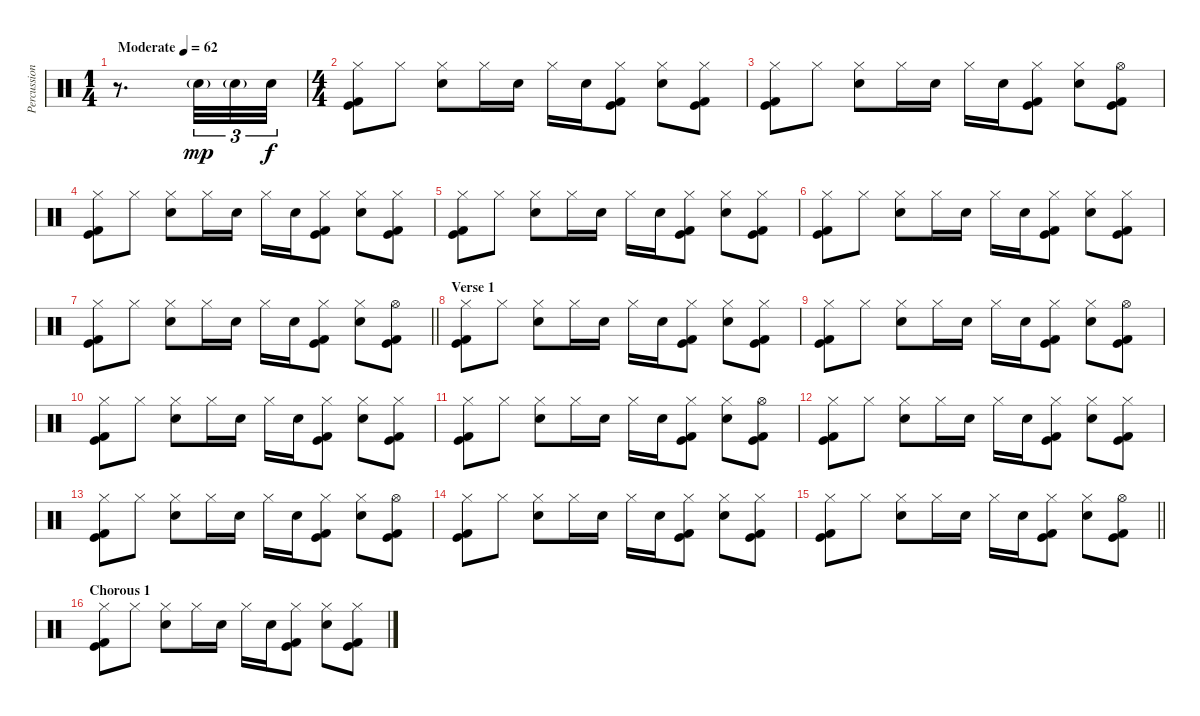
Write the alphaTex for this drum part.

\track ("Percussion" "Percussion") {instrument percussion}
\staff {score}
\articulation defaults
\ts (1 4)
\tempo (62 "Moderate")
\clef neutral
\ks c
r.8{d dy mp} "Snare (hit) 2"{g}.32{tu (3 2)} "Snare (hit) 2"{g}.32{tu (3 2)} "Snare (hit) 2".32{tu (3 2) dy f} |
\ts (4 4)
("Hi-Hat (closed)" "Kick (hit)" "Kick (hit) 2").8 "Hi-Hat (closed)".8 ("Hi-Hat (closed)" "Snare (hit) 2").8 "Hi-Hat (closed)".16 "Snare (hit) 2".16 "Hi-Hat (closed)".16 "Snare (hit) 2".16 ("Hi-Hat (closed)" "Kick (hit)" "Kick (hit) 2").8 ("Hi-Hat (closed)" "Snare (hit) 2").8 ("Hi-Hat (closed)" "Kick (hit)" "Kick (hit) 2").8 |
("Hi-Hat (closed)" "Kick (hit)" "Kick (hit) 2").8 "Hi-Hat (closed)".8 ("Hi-Hat (closed)" "Snare (hit) 2").8 "Hi-Hat (closed)".16 "Snare (hit) 2".16 "Hi-Hat (closed)".16 "Snare (hit) 2".16 ("Hi-Hat (closed)" "Kick (hit)" "Kick (hit) 2").8 ("Hi-Hat (closed)" "Snare (hit) 2").8 ("Hi-Hat (open)" "Kick (hit)" "Kick (hit) 2").8 |
("Hi-Hat (closed)" "Kick (hit)" "Kick (hit) 2").8 "Hi-Hat (closed)".8 ("Hi-Hat (closed)" "Snare (hit) 2").8 "Hi-Hat (closed)".16 "Snare (hit) 2".16 "Hi-Hat (closed)".16 "Snare (hit) 2".16 ("Hi-Hat (closed)" "Kick (hit)" "Kick (hit) 2").8 ("Hi-Hat (closed)" "Snare (hit) 2").8 ("Hi-Hat (closed)" "Kick (hit)" "Kick (hit) 2").8 |
("Hi-Hat (closed)" "Kick (hit)" "Kick (hit) 2").8 "Hi-Hat (closed)".8 ("Hi-Hat (closed)" "Snare (hit) 2").8 "Hi-Hat (closed)".16 "Snare (hit) 2".16 "Hi-Hat (closed)".16 "Snare (hit) 2".16 ("Hi-Hat (closed)" "Kick (hit)" "Kick (hit) 2").8 ("Hi-Hat (closed)" "Snare (hit) 2").8 ("Hi-Hat (closed)" "Kick (hit)" "Kick (hit) 2").8 |
("Hi-Hat (closed)" "Kick (hit)" "Kick (hit) 2").8 "Hi-Hat (closed)".8 ("Hi-Hat (closed)" "Snare (hit) 2").8 "Hi-Hat (closed)".16 "Snare (hit) 2".16 "Hi-Hat (closed)".16 "Snare (hit) 2".16 ("Hi-Hat (closed)" "Kick (hit)" "Kick (hit) 2").8 ("Hi-Hat (closed)" "Snare (hit) 2").8 ("Hi-Hat (closed)" "Kick (hit)" "Kick (hit) 2").8 |
\barLineRight lightlight
("Hi-Hat (closed)" "Kick (hit)" "Kick (hit) 2").8 "Hi-Hat (closed)".8 ("Hi-Hat (closed)" "Snare (hit) 2").8 "Hi-Hat (closed)".16 "Snare (hit) 2".16 "Hi-Hat (closed)".16 "Snare (hit) 2".16 ("Hi-Hat (closed)" "Kick (hit)" "Kick (hit) 2").8 ("Hi-Hat (closed)" "Snare (hit) 2").8 ("Hi-Hat (open)" "Kick (hit)" "Kick (hit) 2").8 |
\section ("" "Verse 1")
("Hi-Hat (closed)" "Kick (hit)" "Kick (hit) 2").8 "Hi-Hat (closed)".8 ("Hi-Hat (closed)" "Snare (hit) 2").8 "Hi-Hat (closed)".16 "Snare (hit) 2".16 "Hi-Hat (closed)".16 "Snare (hit) 2".16 ("Hi-Hat (closed)" "Kick (hit)" "Kick (hit) 2").8 ("Hi-Hat (closed)" "Snare (hit) 2").8 ("Hi-Hat (closed)" "Kick (hit)" "Kick (hit) 2").8 |
("Hi-Hat (closed)" "Kick (hit)" "Kick (hit) 2").8 "Hi-Hat (closed)".8 ("Hi-Hat (closed)" "Snare (hit) 2").8 "Hi-Hat (closed)".16 "Snare (hit) 2".16 "Hi-Hat (closed)".16 "Snare (hit) 2".16 ("Hi-Hat (closed)" "Kick (hit)" "Kick (hit) 2").8 ("Hi-Hat (closed)" "Snare (hit) 2").8 ("Hi-Hat (open)" "Kick (hit)" "Kick (hit) 2").8 |
("Hi-Hat (closed)" "Kick (hit)" "Kick (hit) 2").8 "Hi-Hat (closed)".8 ("Hi-Hat (closed)" "Snare (hit) 2").8 "Hi-Hat (closed)".16 "Snare (hit) 2".16 "Hi-Hat (closed)".16 "Snare (hit) 2".16 ("Hi-Hat (closed)" "Kick (hit)" "Kick (hit) 2").8 ("Hi-Hat (closed)" "Snare (hit) 2").8 ("Hi-Hat (closed)" "Kick (hit)" "Kick (hit) 2").8 |
("Hi-Hat (closed)" "Kick (hit)" "Kick (hit) 2").8 "Hi-Hat (closed)".8 ("Hi-Hat (closed)" "Snare (hit) 2").8 "Hi-Hat (closed)".16 "Snare (hit) 2".16 "Hi-Hat (closed)".16 "Snare (hit) 2".16 ("Hi-Hat (closed)" "Kick (hit)" "Kick (hit) 2").8 ("Hi-Hat (closed)" "Snare (hit) 2").8 ("Hi-Hat (open)" "Kick (hit)" "Kick (hit) 2").8 |
("Hi-Hat (closed)" "Kick (hit)" "Kick (hit) 2").8 "Hi-Hat (closed)".8 ("Hi-Hat (closed)" "Snare (hit) 2").8 "Hi-Hat (closed)".16 "Snare (hit) 2".16 "Hi-Hat (closed)".16 "Snare (hit) 2".16 ("Hi-Hat (closed)" "Kick (hit)" "Kick (hit) 2").8 ("Hi-Hat (closed)" "Snare (hit) 2").8 ("Hi-Hat (closed)" "Kick (hit)" "Kick (hit) 2").8 |
("Hi-Hat (closed)" "Kick (hit)" "Kick (hit) 2").8 "Hi-Hat (closed)".8 ("Hi-Hat (closed)" "Snare (hit) 2").8 "Hi-Hat (closed)".16 "Snare (hit) 2".16 "Hi-Hat (closed)".16 "Snare (hit) 2".16 ("Hi-Hat (closed)" "Kick (hit)" "Kick (hit) 2").8 ("Hi-Hat (closed)" "Snare (hit) 2").8 ("Hi-Hat (open)" "Kick (hit)" "Kick (hit) 2").8 |
("Hi-Hat (closed)" "Kick (hit)" "Kick (hit) 2").8 "Hi-Hat (closed)".8 ("Hi-Hat (closed)" "Snare (hit) 2").8 "Hi-Hat (closed)".16 "Snare (hit) 2".16 "Hi-Hat (closed)".16 "Snare (hit) 2".16 ("Hi-Hat (closed)" "Kick (hit)" "Kick (hit) 2").8 ("Hi-Hat (closed)" "Snare (hit) 2").8 ("Hi-Hat (closed)" "Kick (hit)" "Kick (hit) 2").8 |
\barLineRight lightlight
("Hi-Hat (closed)" "Kick (hit)" "Kick (hit) 2").8 "Hi-Hat (closed)".8 ("Hi-Hat (closed)" "Snare (hit) 2").8 "Hi-Hat (closed)".16 "Snare (hit) 2".16 "Hi-Hat (closed)".16 "Snare (hit) 2".16 ("Hi-Hat (closed)" "Kick (hit)" "Kick (hit) 2").8 ("Hi-Hat (closed)" "Snare (hit) 2").8 ("Hi-Hat (open)" "Kick (hit)" "Kick (hit) 2").8 |
\section ("" "Chorous 1")
("Hi-Hat (closed)" "Kick (hit)" "Kick (hit) 2").8 "Hi-Hat (closed)".8 ("Hi-Hat (closed)" "Snare (hit) 2").8 "Hi-Hat (closed)".16 "Snare (hit) 2".16 "Hi-Hat (closed)".16 "Snare (hit) 2".16 ("Hi-Hat (closed)" "Kick (hit)" "Kick (hit) 2").8 ("Hi-Hat (closed)" "Snare (hit) 2").8 ("Hi-Hat (closed)" "Kick (hit)" "Kick (hit) 2").8
